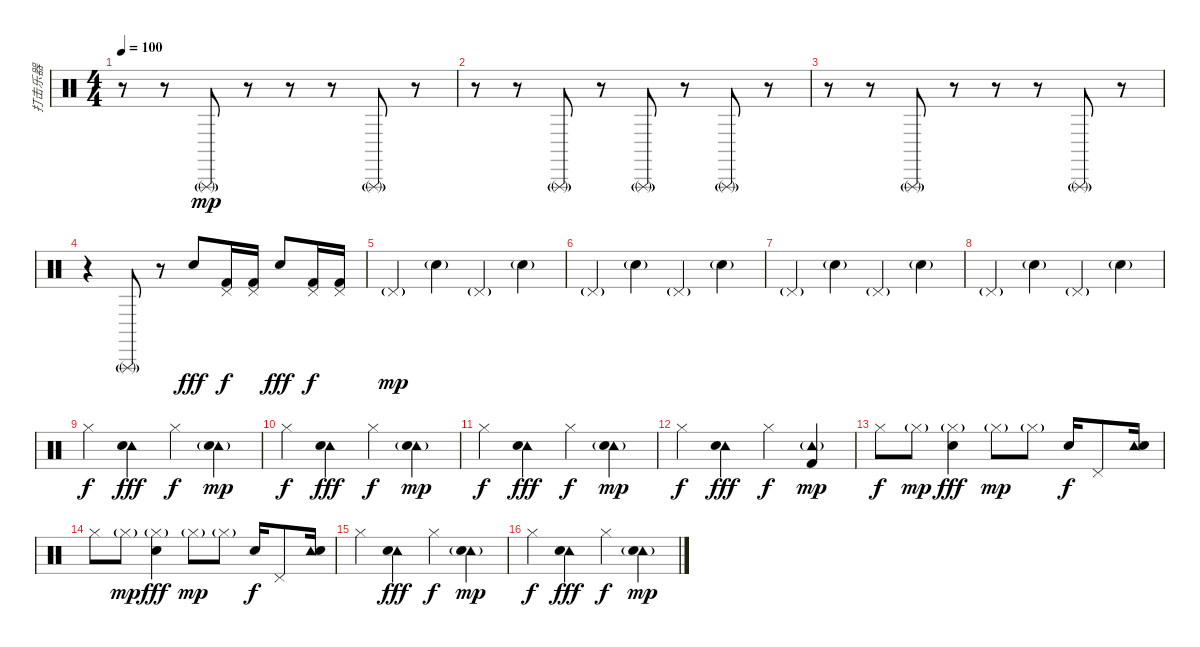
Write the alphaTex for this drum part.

\track ("打击乐器" "打击乐器") {instrument percussion}
\staff {score}
\articulation defaults
\ts (4 4)
\tempo 100
\clef neutral
\ks c
r.8{dy mp} r.8 "Triangle (rnute)"{g}.8 r.8 r.8 r.8 "Triangle (rnute)"{g}.8 r.8 |
r.8 r.8 "Triangle (rnute)"{g}.8 r.8 "Triangle (rnute)"{g}.8 r.8 "Triangle (rnute)"{g}.8 r.8 |
r.8 r.8 "Triangle (rnute)"{g}.8 r.8 r.8 r.8 "Triangle (rnute)"{g}.8 r.8 |
r.4 "Triangle (rnute)"{g}.8 r.8 "Snare (hit) 2".8{dy fff} ("Pedal Hi-Hat (hit)" "Kick (hit) 2").16{dy f} ("Pedal Hi-Hat (hit)" "Kick (hit) 2").16 "Snare (hit) 2".8{dy fff} ("Pedal Hi-Hat (hit)" "Kick (hit) 2").16{dy f} ("Pedal Hi-Hat (hit)" "Kick (hit) 2").16 |
"Pedal Hi-Hat (hit)"{g}.4{dy mp} "Snare (hit) 2"{g}.4 "Pedal Hi-Hat (hit)"{g}.4 "Snare (hit) 2"{g}.4 |
"Pedal Hi-Hat (hit)"{g}.4 "Snare (hit) 2"{g}.4 "Pedal Hi-Hat (hit)"{g}.4 "Snare (hit) 2"{g}.4 |
"Pedal Hi-Hat (hit)"{g}.4 "Snare (hit) 2"{g}.4 "Pedal Hi-Hat (hit)"{g}.4 "Snare (hit) 2"{g}.4 |
"Pedal Hi-Hat (hit)"{g}.4 "Snare (hit) 2"{g}.4 "Pedal Hi-Hat (hit)"{g}.4 "Snare (hit) 2"{g}.4 |
"Hi-Hat (closed)".4{dy f} ("Tambourine (hit)" "Snare (hit) 2").4{dy fff} "Hi-Hat (closed)".4{dy f} ("Tambourine (hit)" "Snare (hit) 2"{g}).4{dy mp} |
"Hi-Hat (closed)".4{dy f} ("Tambourine (hit)" "Snare (hit) 2").4{dy fff} "Hi-Hat (closed)".4{dy f} ("Tambourine (hit)" "Snare (hit) 2"{g}).4{dy mp} |
"Hi-Hat (closed)".4{dy f} ("Tambourine (hit)" "Snare (hit) 2").4{dy fff} "Hi-Hat (closed)".4{dy f} ("Tambourine (hit)" "Snare (hit) 2"{g}).4{dy mp} |
"Hi-Hat (closed)".4{dy f} ("Tambourine (hit)" "Snare (hit) 2").4{dy fff} "Hi-Hat (closed)".4{dy f} ("Tambourine (hit)"{g} "Kick (hit) 2").4{dy mp} |
"Hi-Hat (closed)".8{dy f} "Hi-Hat (closed)"{g}.8{dy mp} ("Hi-Hat (closed)"{g} "Snare (hit) 2").4{dy fff} "Hi-Hat (closed)"{g}.8{dy mp} "Hi-Hat (closed)"{g}.8 "Electric Snare (hit)".16{dy f} "Pedal Hi-Hat (hit)".8 ("Tambourine (hit)" "Electric Snare (hit)").16 |
"Hi-Hat (closed)".8 "Hi-Hat (closed)"{g}.8{dy mp} ("Hi-Hat (closed)"{g} "Snare (hit) 2").4{dy fff} "Hi-Hat (closed)"{g}.8{dy mp} "Hi-Hat (closed)"{g}.8 "Electric Snare (hit)".16{dy f} "Pedal Hi-Hat (hit)".8 ("Tambourine (hit)" "Electric Snare (hit)").16 |
"Hi-Hat (closed)".4 ("Tambourine (hit)" "Snare (hit) 2").4{dy fff} "Hi-Hat (closed)".4{dy f} ("Tambourine (hit)" "Snare (hit) 2"{g}).4{dy mp} |
"Hi-Hat (closed)".4{dy f} ("Tambourine (hit)" "Snare (hit) 2").4{dy fff} "Hi-Hat (closed)".4{dy f} ("Tambourine (hit)" "Snare (hit) 2"{g}).4{dy mp}
